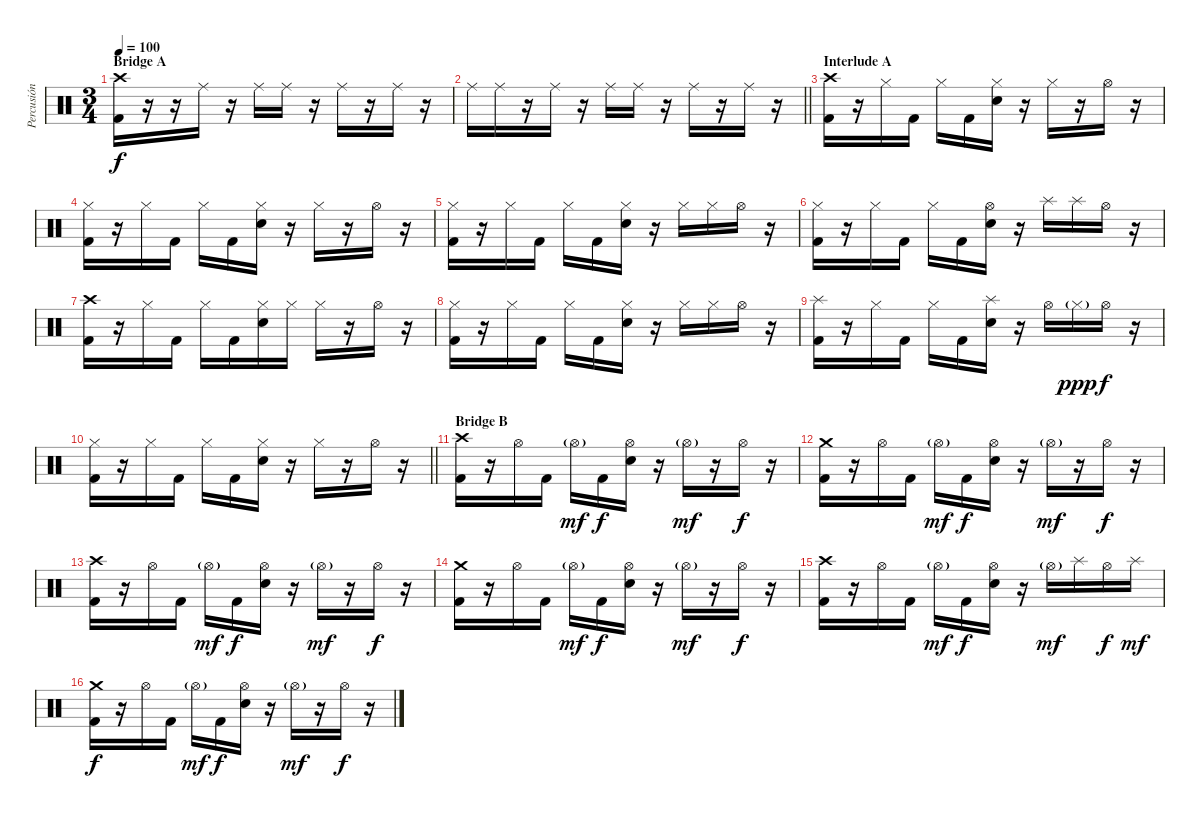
\track ("Percusión" "Percusión") {instrument percussion}
\staff {score}
\articulation defaults
\ts (3 4)
\section ("" "Bridge A")
\tempo 100
\clef neutral
\ks c
("Crash high (hit)" "Kick (hit) 2").16{dy f} r.16 r.16 "Ride (middle)".16 r.16 "Ride (middle)".16 "Ride (middle)".16 r.16 "Ride (middle)".16 r.16 "Ride (middle)".16 r.16 |
\barLineRight lightlight "Ride (middle)".16 "Ride (middle)".16
r.16 "Ride (middle)".16 r.16 "Ride (middle)".16 "Ride (middle)".16 r.16 "Ride (middle)".16 r.16 "Ride (middle)".16 r.16 |
\section ("" "Interlude A")
("Crash high (hit)" "Kick (hit) 2").16 r.16 "Hi-Hat (closed)".16 "Kick (hit) 2".16 "Hi-Hat (closed)".16 "Kick (hit) 2".16 ("Hi-Hat (closed)" "Electric Snare (hit)").16 r.16 "Hi-Hat (closed)".16 r.16 "Hi-Hat (open)".16 r.16 |
("Hi-Hat (closed)" "Kick (hit) 2").16 r.16 "Hi-Hat (closed)".16 "Kick (hit) 2".16 "Hi-Hat (closed)".16 "Kick (hit) 2".16 ("Hi-Hat (closed)" "Electric Snare (hit)").16 r.16 "Hi-Hat (closed)".16 r.16 "Hi-Hat (open)".16 r.16 |
("Hi-Hat (closed)" "Kick (hit) 2").16 r.16 "Hi-Hat (closed)".16 "Kick (hit) 2".16 "Hi-Hat (closed)".16 "Kick (hit) 2".16 ("Hi-Hat (closed)" "Electric Snare (hit)").16 r.16 "Hi-Hat (closed)".16 "Hi-Hat (closed)".16 "Hi-Hat (open)".16 r.16 |
("Hi-Hat (closed)" "Kick (hit) 2").16 r.16 "Hi-Hat (closed)".16 "Kick (hit) 2".16 "Hi-Hat (closed)".16 "Kick (hit) 2".16 ("Hi-Hat (open)" "Electric Snare (hit)").16 r.16 "Splash (hit)".16 "Splash (hit)".16 "Hi-Hat (open)".16 r.16 |
("Crash high (hit)" "Kick (hit) 2").16 r.16 "Hi-Hat (closed)".16 "Kick (hit) 2".16 "Hi-Hat (closed)".16 "Kick (hit) 2".16 ("Hi-Hat (closed)" "Electric Snare (hit)").16 "Hi-Hat (closed)".16 "Hi-Hat (closed)".16 r.16 "Hi-Hat (open)".16 r.16 |
("Hi-Hat (closed)" "Kick (hit) 2").16 r.16 "Hi-Hat (closed)".16 "Kick (hit) 2".16 "Hi-Hat (closed)".16 "Kick (hit) 2".16 ("Hi-Hat (closed)" "Electric Snare (hit)").16 r.16 "Hi-Hat (closed)".16 "Hi-Hat (closed)".16 "Hi-Hat (open)".16 r.16 |
("Splash (hit)" "Kick (hit) 2").16 r.16 "Hi-Hat (closed)".16 "Kick (hit) 2".16 "Hi-Hat (closed)".16 "Kick (hit) 2".16 ("Splash (hit)" "Electric Snare (hit)").16 r.16 "Hi-Hat (open)".16 "Hi-Hat (closed)"{g}.16{dy ppp} "Hi-Hat (open)".16{dy f} r.16 |
\barLineRight lightlight
("Hi-Hat (closed)" "Kick (hit) 2").16 r.16 "Hi-Hat (closed)".16 "Kick (hit) 2".16 "Hi-Hat (closed)".16 "Kick (hit) 2".16 ("Hi-Hat (closed)" "Electric Snare (hit)").16 r.16 "Hi-Hat (closed)".16 r.16 "Hi-Hat (open)".16 r.16 |
\section ("" "Bridge B")
("Crash high (hit)" "Kick (hit) 2").16 r.16 "Hi-Hat (open)".16 "Kick (hit) 2".16 "Hi-Hat (open)"{g}.16{dy mf} "Kick (hit) 2".16{dy f} ("Hi-Hat (open)" "Electric Snare (hit)").16 r.16 "Hi-Hat (open)"{g}.16{dy mf} r.16 "Hi-Hat (open)".16{dy f} r.16 |
("Crash medium (hit)" "Kick (hit) 2").16 r.16 "Hi-Hat (open)".16 "Kick (hit) 2".16 "Hi-Hat (open)"{g}.16{dy mf} "Kick (hit) 2".16{dy f} ("Hi-Hat (open)" "Electric Snare (hit)").16 r.16 "Hi-Hat (open)"{g}.16{dy mf} r.16 "Hi-Hat (open)".16{dy f} r.16 |
("Crash high (hit)" "Kick (hit) 2").16 r.16 "Hi-Hat (open)".16 "Kick (hit) 2".16 "Hi-Hat (open)"{g}.16{dy mf} "Kick (hit) 2".16{dy f} ("Hi-Hat (open)" "Electric Snare (hit)").16 r.16 "Hi-Hat (open)"{g}.16{dy mf} r.16 "Hi-Hat (open)".16{dy f} r.16 |
("Crash medium (hit)" "Kick (hit) 2").16 r.16 "Hi-Hat (open)".16 "Kick (hit) 2".16 "Hi-Hat (open)"{g}.16{dy mf} "Kick (hit) 2".16{dy f} ("Hi-Hat (open)" "Electric Snare (hit)").16 r.16 "Hi-Hat (open)"{g}.16{dy mf} r.16 "Hi-Hat (open)".16{dy f} r.16 |
("Crash high (hit)" "Kick (hit) 2").16 r.16 "Hi-Hat (open)".16 "Kick (hit) 2".16 "Hi-Hat (open)"{g}.16{dy mf} "Kick (hit) 2".16{dy f} ("Hi-Hat (open)" "Electric Snare (hit)").16 r.16 "Hi-Hat (open)"{g}.16{dy mf} "Splash (hit)".16 "Hi-Hat (open)".16{dy f} "Splash (hit)".16{dy mf} |
("Crash medium (hit)" "Kick (hit) 2").16{dy f} r.16 "Hi-Hat (open)".16 "Kick (hit) 2".16 "Hi-Hat (open)"{g}.16{dy mf} "Kick (hit) 2".16{dy f} ("Hi-Hat (open)" "Electric Snare (hit)").16 r.16 "Hi-Hat (open)"{g}.16{dy mf} r.16 "Hi-Hat (open)".16{dy f} r.16
